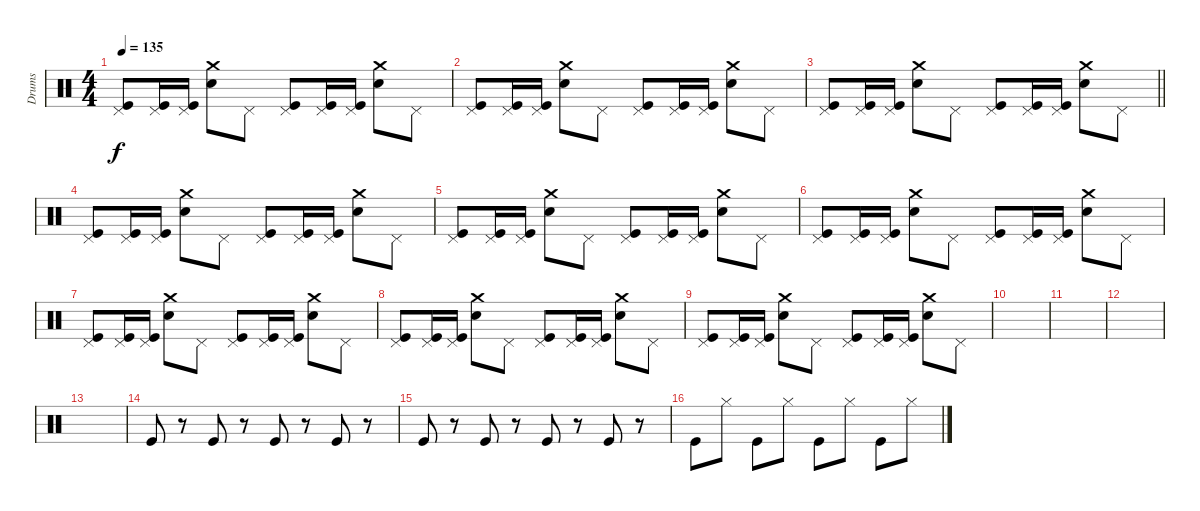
\track ("Drums" "Drums") {instrument percussion}
\staff {score}
\articulation defaults
\ts (4 4)
\tempo 135
\clef neutral
\ks c
("Pedal Hi-Hat (hit)" "Kick (hit)").8{dy f} ("Pedal Hi-Hat (hit)" "Kick (hit)").16 ("Pedal Hi-Hat (hit)" "Kick (hit)").16 ("Crash medium (hit)" "Electric Snare (hit)").8 "Pedal Hi-Hat (hit)".8 ("Pedal Hi-Hat (hit)" "Kick (hit)").8 ("Pedal Hi-Hat (hit)" "Kick (hit)").16 ("Pedal Hi-Hat (hit)" "Kick (hit)").16 ("Crash medium (hit)" "Electric Snare (hit)").8 "Pedal Hi-Hat (hit)".8 |
("Pedal Hi-Hat (hit)" "Kick (hit)").8 ("Pedal Hi-Hat (hit)" "Kick (hit)").16 ("Pedal Hi-Hat (hit)" "Kick (hit)").16 ("Crash medium (hit)" "Electric Snare (hit)").8 "Pedal Hi-Hat (hit)".8 ("Pedal Hi-Hat (hit)" "Kick (hit)").8 ("Pedal Hi-Hat (hit)" "Kick (hit)").16 ("Pedal Hi-Hat (hit)" "Kick (hit)").16 ("Crash medium (hit)" "Electric Snare (hit)").8 "Pedal Hi-Hat (hit)".8 |
\barLineRight lightlight
("Pedal Hi-Hat (hit)" "Kick (hit)").8 ("Pedal Hi-Hat (hit)" "Kick (hit)").16 ("Pedal Hi-Hat (hit)" "Kick (hit)").16 ("Crash medium (hit)" "Electric Snare (hit)").8 "Pedal Hi-Hat (hit)".8 ("Pedal Hi-Hat (hit)" "Kick (hit)").8 ("Pedal Hi-Hat (hit)" "Kick (hit)").16 ("Pedal Hi-Hat (hit)" "Kick (hit)").16 ("Crash medium (hit)" "Electric Snare (hit)").8 "Pedal Hi-Hat (hit)".8 |
("Pedal Hi-Hat (hit)" "Kick (hit)").8 ("Pedal Hi-Hat (hit)" "Kick (hit)").16 ("Pedal Hi-Hat (hit)" "Kick (hit)").16 ("Crash medium (hit)" "Electric Snare (hit)").8 "Pedal Hi-Hat (hit)".8 ("Pedal Hi-Hat (hit)" "Kick (hit)").8 ("Pedal Hi-Hat (hit)" "Kick (hit)").16 ("Pedal Hi-Hat (hit)" "Kick (hit)").16 ("Crash medium (hit)" "Electric Snare (hit)").8 "Pedal Hi-Hat (hit)".8 |
("Pedal Hi-Hat (hit)" "Kick (hit)").8 ("Pedal Hi-Hat (hit)" "Kick (hit)").16 ("Pedal Hi-Hat (hit)" "Kick (hit)").16 ("Crash medium (hit)" "Electric Snare (hit)").8 "Pedal Hi-Hat (hit)".8 ("Pedal Hi-Hat (hit)" "Kick (hit)").8 ("Pedal Hi-Hat (hit)" "Kick (hit)").16 ("Pedal Hi-Hat (hit)" "Kick (hit)").16 ("Crash medium (hit)" "Electric Snare (hit)").8 "Pedal Hi-Hat (hit)".8 |
("Pedal Hi-Hat (hit)" "Kick (hit)").8 ("Pedal Hi-Hat (hit)" "Kick (hit)").16 ("Pedal Hi-Hat (hit)" "Kick (hit)").16 ("Crash medium (hit)" "Electric Snare (hit)").8 "Pedal Hi-Hat (hit)".8 ("Pedal Hi-Hat (hit)" "Kick (hit)").8 ("Pedal Hi-Hat (hit)" "Kick (hit)").16 ("Pedal Hi-Hat (hit)" "Kick (hit)").16 ("Crash medium (hit)" "Electric Snare (hit)").8 "Pedal Hi-Hat (hit)".8 |
("Pedal Hi-Hat (hit)" "Kick (hit)").8 ("Pedal Hi-Hat (hit)" "Kick (hit)").16 ("Pedal Hi-Hat (hit)" "Kick (hit)").16 ("Crash medium (hit)" "Electric Snare (hit)").8 "Pedal Hi-Hat (hit)".8 ("Pedal Hi-Hat (hit)" "Kick (hit)").8 ("Pedal Hi-Hat (hit)" "Kick (hit)").16 ("Pedal Hi-Hat (hit)" "Kick (hit)").16 ("Crash medium (hit)" "Electric Snare (hit)").8 "Pedal Hi-Hat (hit)".8 |
("Pedal Hi-Hat (hit)" "Kick (hit)").8 ("Pedal Hi-Hat (hit)" "Kick (hit)").16 ("Pedal Hi-Hat (hit)" "Kick (hit)").16 ("Crash medium (hit)" "Electric Snare (hit)").8 "Pedal Hi-Hat (hit)".8 ("Pedal Hi-Hat (hit)" "Kick (hit)").8 ("Pedal Hi-Hat (hit)" "Kick (hit)").16 ("Pedal Hi-Hat (hit)" "Kick (hit)").16 ("Crash medium (hit)" "Electric Snare (hit)").8 "Pedal Hi-Hat (hit)".8 |
("Pedal Hi-Hat (hit)" "Kick (hit)").8 ("Pedal Hi-Hat (hit)" "Kick (hit)").16 ("Pedal Hi-Hat (hit)" "Kick (hit)").16 ("Crash medium (hit)" "Electric Snare (hit)").8 "Pedal Hi-Hat (hit)".8 ("Pedal Hi-Hat (hit)" "Kick (hit)").8 ("Pedal Hi-Hat (hit)" "Kick (hit)").16 ("Pedal Hi-Hat (hit)" "Kick (hit)").16 ("Crash medium (hit)" "Electric Snare (hit)").8 "Pedal Hi-Hat (hit)".8 |
|
|
|
|
"Kick (hit)".8 r.8 "Kick (hit)".8 r.8 "Kick (hit)".8 r.8 "Kick (hit)".8 r.8 |
"Kick (hit)".8 r.8 "Kick (hit)".8 r.8 "Kick (hit)".8 r.8 "Kick (hit)".8 r.8 |
"Kick (hit)".8 "Hi-Hat (closed)".8 "Kick (hit)".8 "Hi-Hat (closed)".8 "Kick (hit)".8 "Hi-Hat (closed)".8 "Kick (hit)".8 "Hi-Hat (closed)".8
